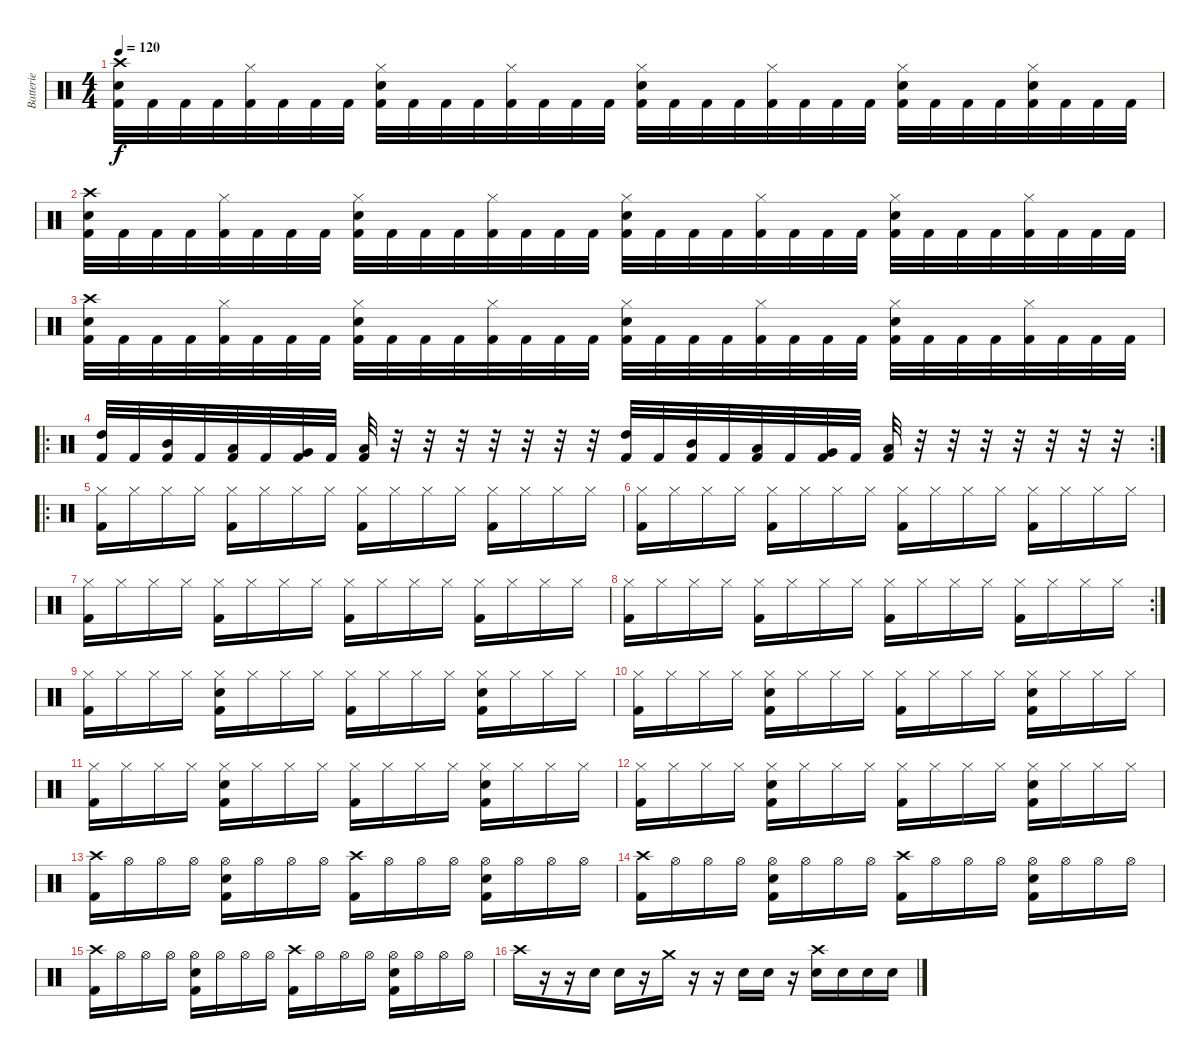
\track ("Batterie" "Batterie") {instrument percussion}
\staff {score}
\articulation defaults
\ts (4 4)
\tempo 120
\clef neutral
\ks c
("Crash high (hit)" "Electric Snare (hit)" "Kick (hit) 2").32{dy f} "Kick (hit) 2".32 "Kick (hit) 2".32 "Kick (hit) 2".32 ("Hi-Hat (closed)" "Kick (hit) 2").32 "Kick (hit) 2".32 "Kick (hit) 2".32 "Kick (hit) 2".32 ("Hi-Hat (closed)" "Electric Snare (hit)" "Kick (hit) 2").32 "Kick (hit) 2".32 "Kick (hit) 2".32 "Kick (hit) 2".32 ("Hi-Hat (closed)" "Kick (hit) 2").32 "Kick (hit) 2".32 "Kick (hit) 2".32 "Kick (hit) 2".32 ("Hi-Hat (closed)" "Electric Snare (hit)" "Kick (hit) 2").32 "Kick (hit) 2".32 "Kick (hit) 2".32 "Kick (hit) 2".32 ("Hi-Hat (closed)" "Kick (hit) 2").32 "Kick (hit) 2".32 "Kick (hit) 2".32 "Kick (hit) 2".32 ("Hi-Hat (closed)" "Electric Snare (hit)" "Kick (hit) 2").32 "Kick (hit) 2".32 "Kick (hit) 2".32 "Kick (hit) 2".32 ("Hi-Hat (closed)" "Electric Snare (hit)" "Kick (hit) 2").32 "Kick (hit) 2".32 "Kick (hit) 2".32 "Kick (hit) 2".32 |
("Crash high (hit)" "Electric Snare (hit)" "Kick (hit) 2").32 "Kick (hit) 2".32 "Kick (hit) 2".32 "Kick (hit) 2".32 ("Hi-Hat (closed)" "Kick (hit) 2").32 "Kick (hit) 2".32 "Kick (hit) 2".32 "Kick (hit) 2".32 ("Hi-Hat (closed)" "Electric Snare (hit)" "Kick (hit) 2").32 "Kick (hit) 2".32 "Kick (hit) 2".32 "Kick (hit) 2".32 ("Hi-Hat (closed)" "Kick (hit) 2").32 "Kick (hit) 2".32 "Kick (hit) 2".32 "Kick (hit) 2".32 ("Hi-Hat (closed)" "Electric Snare (hit)" "Kick (hit) 2").32 "Kick (hit) 2".32 "Kick (hit) 2".32 "Kick (hit) 2".32 ("Hi-Hat (closed)" "Kick (hit) 2").32 "Kick (hit) 2".32 "Kick (hit) 2".32 "Kick (hit) 2".32 ("Hi-Hat (closed)" "Electric Snare (hit)" "Kick (hit) 2").32 "Kick (hit) 2".32 "Kick (hit) 2".32 "Kick (hit) 2".32 ("Hi-Hat (closed)" "Kick (hit) 2").32 "Kick (hit) 2".32 "Kick (hit) 2".32 "Kick (hit) 2".32 |
("Crash high (hit)" "Electric Snare (hit)" "Kick (hit) 2").32 "Kick (hit) 2".32 "Kick (hit) 2".32 "Kick (hit) 2".32 ("Hi-Hat (closed)" "Kick (hit) 2").32 "Kick (hit) 2".32 "Kick (hit) 2".32 "Kick (hit) 2".32 ("Hi-Hat (closed)" "Electric Snare (hit)" "Kick (hit) 2").32 "Kick (hit) 2".32 "Kick (hit) 2".32 "Kick (hit) 2".32 ("Hi-Hat (closed)" "Kick (hit) 2").32 "Kick (hit) 2".32 "Kick (hit) 2".32 "Kick (hit) 2".32 ("Hi-Hat (closed)" "Electric Snare (hit)" "Kick (hit) 2").32 "Kick (hit) 2".32 "Kick (hit) 2".32 "Kick (hit) 2".32 ("Hi-Hat (closed)" "Kick (hit) 2").32 "Kick (hit) 2".32 "Kick (hit) 2".32 "Kick (hit) 2".32 ("Hi-Hat (closed)" "Electric Snare (hit)" "Kick (hit) 2").32 "Kick (hit) 2".32 "Kick (hit) 2".32 "Kick (hit) 2".32 ("Hi-Hat (closed)" "Kick (hit) 2").32 "Kick (hit) 2".32 "Kick (hit) 2".32 "Kick (hit) 2".32 |
\ro
\rc 2
("High Tom (hit)" "Kick (hit) 2").32 "Kick (hit) 2".32 ("Mid Tom (hit)" "Kick (hit) 2").32 "Kick (hit) 2".32 ("Low Tom (hit)" "Kick (hit) 2").32 "Kick (hit) 2".32 ("Very Low Tom (hit)" "Kick (hit) 2").32 "Kick (hit) 2".32 ("Low Floor Tom (hit)" "Kick (hit) 2").32 r.32 r.32 r.32 r.32 r.32 r.32 r.32 ("High Tom (hit)" "Kick (hit) 2").32 "Kick (hit) 2".32 ("Mid Tom (hit)" "Kick (hit) 2").32 "Kick (hit) 2".32 ("Low Tom (hit)" "Kick (hit) 2").32 "Kick (hit) 2".32 ("Very Low Tom (hit)" "Kick (hit) 2").32 "Kick (hit) 2".32 ("Low Floor Tom (hit)" "Kick (hit) 2").32 r.32 r.32 r.32 r.32 r.32 r.32 r.32 |
\ro
("Hi-Hat (closed)" "Kick (hit) 2").16 "Hi-Hat (closed)".16 "Hi-Hat (closed)".16 "Hi-Hat (closed)".16 ("Hi-Hat (closed)" "Kick (hit) 2").16 "Hi-Hat (closed)".16 "Hi-Hat (closed)".16 "Hi-Hat (closed)".16 ("Hi-Hat (closed)" "Kick (hit) 2").16 "Hi-Hat (closed)".16 "Hi-Hat (closed)".16 "Hi-Hat (closed)".16 ("Hi-Hat (closed)" "Kick (hit) 2").16 "Hi-Hat (closed)".16 "Hi-Hat (closed)".16 "Hi-Hat (closed)".16 |
("Hi-Hat (closed)" "Kick (hit) 2").16 "Hi-Hat (closed)".16 "Hi-Hat (closed)".16 "Hi-Hat (closed)".16 ("Hi-Hat (closed)" "Kick (hit) 2").16 "Hi-Hat (closed)".16 "Hi-Hat (closed)".16 "Hi-Hat (closed)".16 ("Hi-Hat (closed)" "Kick (hit) 2").16 "Hi-Hat (closed)".16 "Hi-Hat (closed)".16 "Hi-Hat (closed)".16 ("Hi-Hat (closed)" "Kick (hit) 2").16 "Hi-Hat (closed)".16 "Hi-Hat (closed)".16 "Hi-Hat (closed)".16 |
("Hi-Hat (closed)" "Kick (hit) 2").16 "Hi-Hat (closed)".16 "Hi-Hat (closed)".16 "Hi-Hat (closed)".16 ("Hi-Hat (closed)" "Kick (hit) 2").16 "Hi-Hat (closed)".16 "Hi-Hat (closed)".16 "Hi-Hat (closed)".16 ("Hi-Hat (closed)" "Kick (hit) 2").16 "Hi-Hat (closed)".16 "Hi-Hat (closed)".16 "Hi-Hat (closed)".16 ("Hi-Hat (closed)" "Kick (hit) 2").16 "Hi-Hat (closed)".16 "Hi-Hat (closed)".16 "Hi-Hat (closed)".16 |
\rc 2
("Hi-Hat (closed)" "Kick (hit) 2").16 "Hi-Hat (closed)".16 "Hi-Hat (closed)".16 "Hi-Hat (closed)".16 ("Hi-Hat (closed)" "Kick (hit) 2").16 "Hi-Hat (closed)".16 "Hi-Hat (closed)".16 "Hi-Hat (closed)".16 ("Hi-Hat (closed)" "Kick (hit) 2").16 "Hi-Hat (closed)".16 "Hi-Hat (closed)".16 "Hi-Hat (closed)".16 ("Hi-Hat (closed)" "Kick (hit) 2").16 "Hi-Hat (closed)".16 "Hi-Hat (closed)".16 "Hi-Hat (closed)".16 |
("Hi-Hat (closed)" "Kick (hit) 2").16 "Hi-Hat (closed)".16 "Hi-Hat (closed)".16 "Hi-Hat (closed)".16 ("Hi-Hat (closed)" "Electric Snare (hit)" "Kick (hit) 2").16 "Hi-Hat (closed)".16 "Hi-Hat (closed)".16 "Hi-Hat (closed)".16 ("Hi-Hat (closed)" "Kick (hit) 2").16 "Hi-Hat (closed)".16 "Hi-Hat (closed)".16 "Hi-Hat (closed)".16 ("Hi-Hat (closed)" "Electric Snare (hit)" "Kick (hit) 2").16 "Hi-Hat (closed)".16 "Hi-Hat (closed)".16 "Hi-Hat (closed)".16 |
("Hi-Hat (closed)" "Kick (hit) 2").16 "Hi-Hat (closed)".16 "Hi-Hat (closed)".16 "Hi-Hat (closed)".16 ("Hi-Hat (closed)" "Electric Snare (hit)" "Kick (hit) 2").16 "Hi-Hat (closed)".16 "Hi-Hat (closed)".16 "Hi-Hat (closed)".16 ("Hi-Hat (closed)" "Kick (hit) 2").16 "Hi-Hat (closed)".16 "Hi-Hat (closed)".16 "Hi-Hat (closed)".16 ("Hi-Hat (closed)" "Electric Snare (hit)" "Kick (hit) 2").16 "Hi-Hat (closed)".16 "Hi-Hat (closed)".16 "Hi-Hat (closed)".16 |
("Hi-Hat (closed)" "Kick (hit) 2").16 "Hi-Hat (closed)".16 "Hi-Hat (closed)".16 "Hi-Hat (closed)".16 ("Hi-Hat (closed)" "Electric Snare (hit)" "Kick (hit) 2").16 "Hi-Hat (closed)".16 "Hi-Hat (closed)".16 "Hi-Hat (closed)".16 ("Hi-Hat (closed)" "Kick (hit) 2").16 "Hi-Hat (closed)".16 "Hi-Hat (closed)".16 "Hi-Hat (closed)".16 ("Hi-Hat (closed)" "Electric Snare (hit)" "Kick (hit) 2").16 "Hi-Hat (closed)".16 "Hi-Hat (closed)".16 "Hi-Hat (closed)".16 |
("Hi-Hat (closed)" "Kick (hit) 2").16 "Hi-Hat (closed)".16 "Hi-Hat (closed)".16 "Hi-Hat (closed)".16 ("Hi-Hat (closed)" "Electric Snare (hit)" "Kick (hit) 2").16 "Hi-Hat (closed)".16 "Hi-Hat (closed)".16 "Hi-Hat (closed)".16 ("Hi-Hat (closed)" "Kick (hit) 2").16 "Hi-Hat (closed)".16 "Hi-Hat (closed)".16 "Hi-Hat (closed)".16 ("Hi-Hat (closed)" "Electric Snare (hit)" "Kick (hit) 2").16 "Hi-Hat (closed)".16 "Hi-Hat (closed)".16 "Hi-Hat (closed)".16 |
("Crash high (hit)" "Kick (hit) 2").16 "Hi-Hat (open)".16 "Hi-Hat (open)".16 "Hi-Hat (open)".16 ("Hi-Hat (open)" "Electric Snare (hit)" "Kick (hit) 2").16 "Hi-Hat (open)".16 "Hi-Hat (open)".16 "Hi-Hat (open)".16 ("Crash high (hit)" "Kick (hit) 2").16 "Hi-Hat (open)".16 "Hi-Hat (open)".16 "Hi-Hat (open)".16 ("Hi-Hat (open)" "Electric Snare (hit)" "Kick (hit) 2").16 "Hi-Hat (open)".16 "Hi-Hat (open)".16 "Hi-Hat (open)".16 |
("Crash high (hit)" "Kick (hit) 2").16 "Hi-Hat (open)".16 "Hi-Hat (open)".16 "Hi-Hat (open)".16 ("Hi-Hat (open)" "Electric Snare (hit)" "Kick (hit) 2").16 "Hi-Hat (open)".16 "Hi-Hat (open)".16 "Hi-Hat (open)".16 ("Crash high (hit)" "Kick (hit) 2").16 "Hi-Hat (open)".16 "Hi-Hat (open)".16 "Hi-Hat (open)".16 ("Hi-Hat (open)" "Electric Snare (hit)" "Kick (hit) 2").16 "Hi-Hat (open)".16 "Hi-Hat (open)".16 "Hi-Hat (open)".16 |
("Crash high (hit)" "Kick (hit) 2").16 "Hi-Hat (open)".16 "Hi-Hat (open)".16 "Hi-Hat (open)".16 ("Hi-Hat (open)" "Electric Snare (hit)" "Kick (hit) 2").16 "Hi-Hat (open)".16 "Hi-Hat (open)".16 "Hi-Hat (open)".16 ("Crash high (hit)" "Kick (hit) 2").16 "Hi-Hat (open)".16 "Hi-Hat (open)".16 "Hi-Hat (open)".16 ("Hi-Hat (open)" "Electric Snare (hit)" "Kick (hit) 2").16 "Hi-Hat (open)".16 "Hi-Hat (open)".16 "Hi-Hat (open)".16 |
"Crash high (hit)".16 r.16 r.16 "Electric Snare (hit)".16 "Electric Snare (hit)".16 r.16 "Crash medium (hit)".16 r.16 r.16 "Electric Snare (hit)".16 "Electric Snare (hit)".16 r.16 ("Crash high (hit)" "Electric Snare (hit)").16 "Electric Snare (hit)".16 "Electric Snare (hit)".16 "Electric Snare (hit)".16
